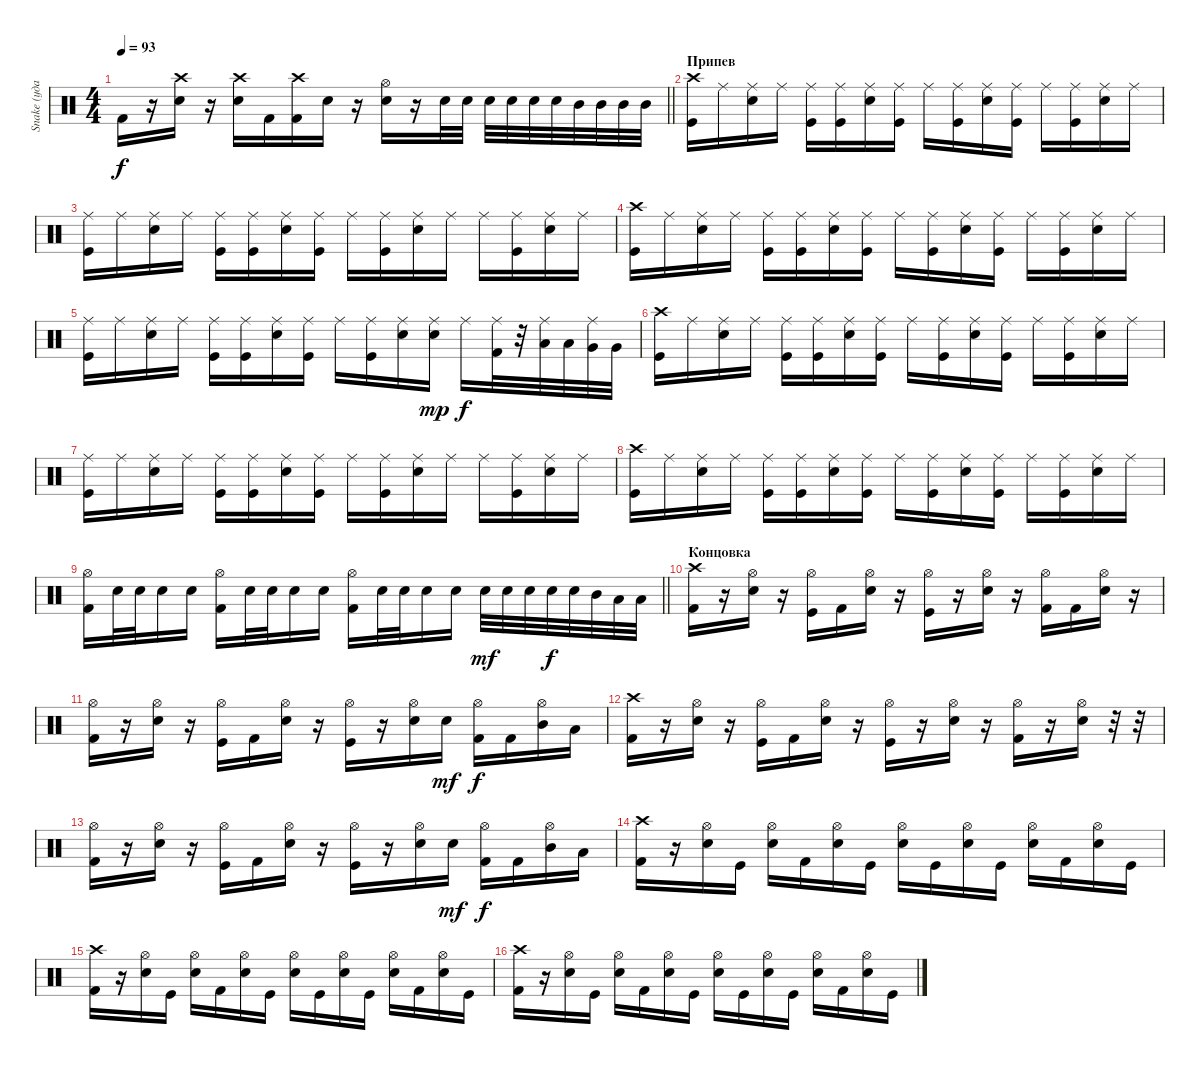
\track ("Snake (ударные)" "Snake (уда") {instrument percussion}
\staff {score}
\articulation defaults
\ts (4 4)
\tempo 93
\clef neutral
\barLineRight lightlight
\ks c "Kick (hit) 2".16{dy f}
r.16 ("Crash high (hit)" "Snare (hit) 2").16 r.16 ("Crash high (hit)" "Snare (hit) 2").16 "Kick (hit) 2".16 ("Crash high (hit)" "Kick (hit) 2").16 "Snare (hit) 2".16 r.16 ("Hi-Hat (open)" "Snare (hit) 2").16 r.16 "Snare (hit) 2".32 "Snare (hit) 2".32 "Snare (hit) 2".32 "Snare (hit) 2".32 "Snare (hit) 2".32 "Snare (hit) 2".32 "Mid Tom (hit)".32 "Mid Tom (hit)".32 "Mid Tom (hit)".32 "Mid Tom (hit)".32 |
\section ("" "Припев")
("Crash high (hit)" "Kick (hit)").16 "Ride (middle)".16 ("Ride (middle)" "Snare (hit) 2").16 "Ride (middle)".16 ("Ride (middle)" "Kick (hit)").16 ("Ride (middle)" "Kick (hit)").16 ("Ride (middle)" "Snare (hit) 2").16 ("Ride (middle)" "Kick (hit)").16 "Ride (middle)".16 ("Ride (middle)" "Kick (hit)").16 ("Ride (middle)" "Snare (hit) 2").16 ("Ride (middle)" "Kick (hit)").16 "Ride (middle)".16 ("Ride (middle)" "Kick (hit)").16 ("Ride (middle)" "Snare (hit) 2").16 "Ride (middle)".16 |
("Ride (middle)" "Kick (hit)").16 "Ride (middle)".16 ("Ride (middle)" "Snare (hit) 2").16 "Ride (middle)".16 ("Ride (middle)" "Kick (hit)").16 ("Ride (middle)" "Kick (hit)").16 ("Ride (middle)" "Snare (hit) 2").16 ("Ride (middle)" "Kick (hit)").16 "Ride (middle)".16 ("Ride (middle)" "Kick (hit)").16 ("Ride (middle)" "Snare (hit) 2").16 "Ride (middle)".16 "Ride (middle)".16 ("Ride (middle)" "Kick (hit)").16 ("Ride (middle)" "Snare (hit) 2").16 "Ride (middle)".16 |
("Crash high (hit)" "Kick (hit)").16 "Ride (middle)".16 ("Ride (middle)" "Snare (hit) 2").16 "Ride (middle)".16 ("Ride (middle)" "Kick (hit)").16 ("Ride (middle)" "Kick (hit)").16 ("Ride (middle)" "Snare (hit) 2").16 ("Ride (middle)" "Kick (hit)").16 "Ride (middle)".16 ("Ride (middle)" "Kick (hit)").16 ("Ride (middle)" "Snare (hit) 2").16 ("Ride (middle)" "Kick (hit)").16 "Ride (middle)".16 ("Ride (middle)" "Kick (hit)").16 ("Ride (middle)" "Snare (hit) 2").16 "Ride (middle)".16 |
("Ride (middle)" "Kick (hit)").16 "Ride (middle)".16 ("Ride (middle)" "Snare (hit) 2").16 "Ride (middle)".16 ("Ride (middle)" "Kick (hit)").16 ("Ride (middle)" "Kick (hit)").16 ("Ride (middle)" "Snare (hit) 2").16 ("Ride (middle)" "Kick (hit)").16 "Ride (middle)".16 ("Ride (middle)" "Kick (hit)").16 ("Ride (middle)" "Snare (hit) 2").16 ("Ride (middle)" "Snare (hit) 2").16{dy mp} "Ride (middle)".16{dy f} ("Ride (middle)" "Kick (hit) 2").32 r.32 ("Ride (middle)" "Low Tom (hit)").32 "Low Tom (hit)".32 ("Ride (middle)" "Very Low Tom (hit)").32 "Very Low Tom (hit)".32 |
("Crash high (hit)" "Kick (hit)").16 "Ride (middle)".16 ("Ride (middle)" "Snare (hit) 2").16 "Ride (middle)".16 ("Ride (middle)" "Kick (hit)").16 ("Ride (middle)" "Kick (hit)").16 ("Ride (middle)" "Snare (hit) 2").16 ("Ride (middle)" "Kick (hit)").16 "Ride (middle)".16 ("Ride (middle)" "Kick (hit)").16 ("Ride (middle)" "Snare (hit) 2").16 ("Ride (middle)" "Kick (hit)").16 "Ride (middle)".16 ("Ride (middle)" "Kick (hit)").16 ("Ride (middle)" "Snare (hit) 2").16 "Ride (middle)".16 |
("Ride (middle)" "Kick (hit)").16 "Ride (middle)".16 ("Ride (middle)" "Snare (hit) 2").16 "Ride (middle)".16 ("Ride (middle)" "Kick (hit)").16 ("Ride (middle)" "Kick (hit)").16 ("Ride (middle)" "Snare (hit) 2").16 ("Ride (middle)" "Kick (hit)").16 "Ride (middle)".16 ("Ride (middle)" "Kick (hit)").16 ("Ride (middle)" "Snare (hit) 2").16 "Ride (middle)".16 "Ride (middle)".16 ("Ride (middle)" "Kick (hit)").16 ("Ride (middle)" "Snare (hit) 2").16 "Ride (middle)".16 |
("Crash high (hit)" "Kick (hit)").16 "Ride (middle)".16 ("Ride (middle)" "Snare (hit) 2").16 "Ride (middle)".16 ("Ride (middle)" "Kick (hit)").16 ("Ride (middle)" "Kick (hit)").16 ("Ride (middle)" "Snare (hit) 2").16 ("Ride (middle)" "Kick (hit)").16 "Ride (middle)".16 ("Ride (middle)" "Kick (hit)").16 ("Ride (middle)" "Snare (hit) 2").16 ("Ride (middle)" "Kick (hit)").16 "Ride (middle)".16 ("Ride (middle)" "Kick (hit)").16 ("Ride (middle)" "Snare (hit) 2").16 "Ride (middle)".16 |
\barLineRight lightlight
("Kick (hit) 2" "Hi-Hat (open)").16 "Snare (hit) 2".32 "Snare (hit) 2".32 "Snare (hit) 2".16 "Snare (hit) 2".16 ("Kick (hit) 2" "Hi-Hat (open)").16 "Snare (hit) 2".32 "Snare (hit) 2".32 "Snare (hit) 2".16 "Snare (hit) 2".16 ("Kick (hit) 2" "Hi-Hat (open)").16 "Snare (hit) 2".32 "Snare (hit) 2".32 "Snare (hit) 2".16 "Snare (hit) 2".16 "Snare (hit) 2".32{dy mf} "Snare (hit) 2".32 "Snare (hit) 2".32 "Snare (hit) 2".32{dy f} "Snare (hit) 2".32 "Mid Tom (hit)".32 "Low Tom (hit)".32 "Low Tom (hit)".32 |
\section ("" "Концовка")
("Crash high (hit)" "Kick (hit) 2").16 r.16 ("Hi-Hat (open)" "Snare (hit) 2").16 r.16 ("Hi-Hat (open)" "Kick (hit)").16 "Kick (hit) 2".16 ("Hi-Hat (open)" "Snare (hit) 2").16 r.16 ("Hi-Hat (open)" "Kick (hit)").16 r.16 ("Hi-Hat (open)" "Snare (hit) 2").16 r.16 ("Hi-Hat (open)" "Kick (hit) 2").16 "Kick (hit) 2".16 ("Hi-Hat (open)" "Snare (hit) 2").16 r.16 |
("Hi-Hat (open)" "Kick (hit) 2").16 r.16 ("Hi-Hat (open)" "Snare (hit) 2").16 r.16 ("Hi-Hat (open)" "Kick (hit)").16 "Kick (hit) 2".16 ("Hi-Hat (open)" "Snare (hit) 2").16 r.16 ("Hi-Hat (open)" "Kick (hit)").16 r.16 ("Hi-Hat (open)" "Snare (hit) 2").16 "Snare (hit) 2".16{dy mf} ("Hi-Hat (open)" "Kick (hit) 2").16{dy f} "Kick (hit) 2".16 ("Hi-Hat (open)" "Mid Tom (hit)").16 "Low Tom (hit)".16 |
("Crash high (hit)" "Kick (hit) 2").16 r.16 ("Hi-Hat (open)" "Snare (hit) 2").16 r.16 ("Hi-Hat (open)" "Kick (hit)").16 "Kick (hit) 2".16 ("Hi-Hat (open)" "Snare (hit) 2").16 r.16 ("Hi-Hat (open)" "Kick (hit)").16 r.16 ("Hi-Hat (open)" "Snare (hit) 2").16 r.16 ("Hi-Hat (open)" "Kick (hit) 2").16 r.16 ("Hi-Hat (open)" "Snare (hit) 2").16 r.32 r.32 |
("Hi-Hat (open)" "Kick (hit) 2").16 r.16 ("Hi-Hat (open)" "Snare (hit) 2").16 r.16 ("Hi-Hat (open)" "Kick (hit)").16 "Kick (hit) 2".16 ("Hi-Hat (open)" "Snare (hit) 2").16 r.16 ("Hi-Hat (open)" "Kick (hit)").16 r.16 ("Hi-Hat (open)" "Snare (hit) 2").16 "Snare (hit) 2".16{dy mf} ("Hi-Hat (open)" "Kick (hit) 2").16{dy f} "Kick (hit) 2".16 ("Hi-Hat (open)" "Mid Tom (hit)").16 "Low Tom (hit)".16 |
("Crash high (hit)" "Kick (hit) 2").16 r.16 ("Hi-Hat (open)" "Snare (hit) 2").16 "Kick (hit)".16 ("Hi-Hat (open)" "Snare (hit) 2").16 "Kick (hit) 2".16 ("Hi-Hat (open)" "Snare (hit) 2").16 "Kick (hit)".16 ("Hi-Hat (open)" "Snare (hit) 2").16 "Kick (hit)".16 ("Hi-Hat (open)" "Snare (hit) 2").16 "Kick (hit)".16 ("Hi-Hat (open)" "Snare (hit) 2").16 "Kick (hit) 2".16 ("Hi-Hat (open)" "Snare (hit) 2").16 "Kick (hit)".16 |
("Crash high (hit)" "Kick (hit) 2").16 r.16 ("Hi-Hat (open)" "Snare (hit) 2").16 "Kick (hit)".16 ("Hi-Hat (open)" "Snare (hit) 2").16 "Kick (hit) 2".16 ("Hi-Hat (open)" "Snare (hit) 2").16 "Kick (hit)".16 ("Hi-Hat (open)" "Snare (hit) 2").16 "Kick (hit)".16 ("Hi-Hat (open)" "Snare (hit) 2").16 "Kick (hit)".16 ("Hi-Hat (open)" "Snare (hit) 2").16 "Kick (hit) 2".16 ("Hi-Hat (open)" "Snare (hit) 2").16 "Kick (hit)".16 |
("Crash high (hit)" "Kick (hit) 2").16 r.16 ("Hi-Hat (open)" "Snare (hit) 2").16 "Kick (hit)".16 ("Hi-Hat (open)" "Snare (hit) 2").16 "Kick (hit) 2".16 ("Hi-Hat (open)" "Snare (hit) 2").16 "Kick (hit)".16 ("Hi-Hat (open)" "Snare (hit) 2").16 "Kick (hit)".16 ("Hi-Hat (open)" "Snare (hit) 2").16 "Kick (hit)".16 ("Hi-Hat (open)" "Snare (hit) 2").16 "Kick (hit) 2".16 ("Hi-Hat (open)" "Snare (hit) 2").16 "Kick (hit)".16
